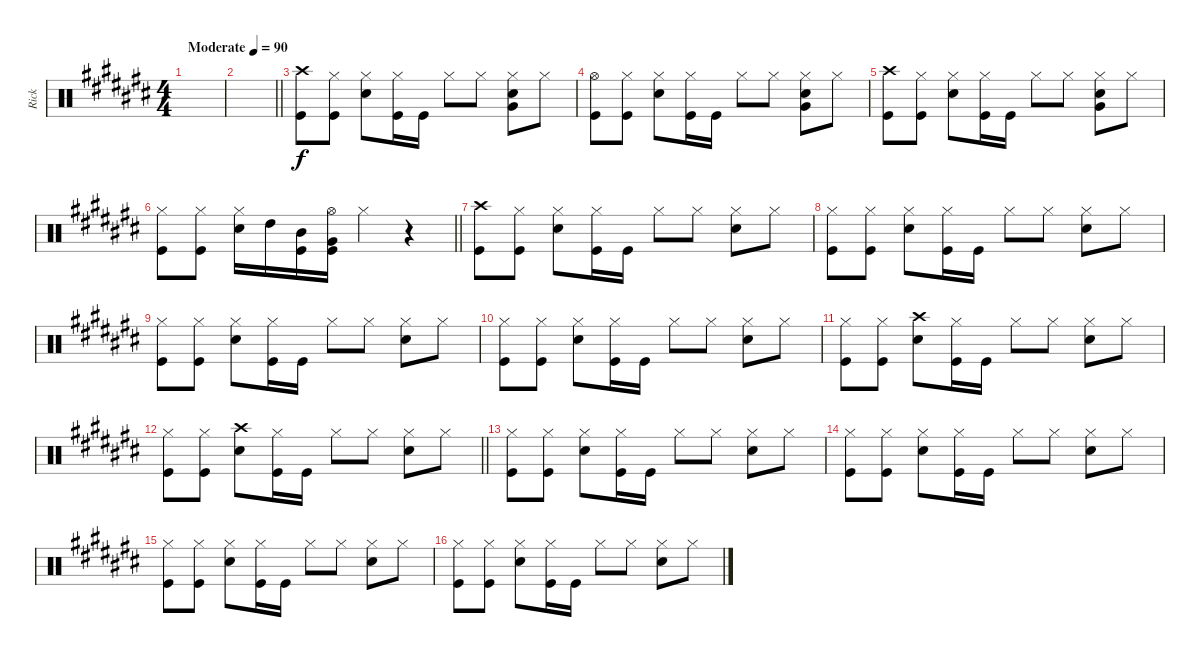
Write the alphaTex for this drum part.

\track ("Rick" "Rick") {instrument percussion}
\staff {score}
\articulation defaults
\ts (4 4)
\tempo (90 "Moderate")
\clef neutral
\ks c#
|
\barLineRight lightlight
|
("Crash high (hit)" "Kick (hit)").8 ("Hi-Hat (closed)" "Kick (hit)").8 ("Hi-Hat (closed)" "Snare (hit) 2").8 ("Hi-Hat (closed)" "Kick (hit)").16 "Kick (hit)".16 "Hi-Hat (closed)".8 "Hi-Hat (closed)".8 ("Hi-Hat (closed)" "Snare (hit) 2" "Very Low Tom (hit)").8 "Hi-Hat (closed)".8 |
("Hi-Hat (open)" "Kick (hit)").8 ("Hi-Hat (closed)" "Kick (hit)").8 ("Hi-Hat (closed)" "Snare (hit) 2").8 ("Hi-Hat (closed)" "Kick (hit)").16 "Kick (hit)".16 "Hi-Hat (closed)".8 "Hi-Hat (closed)".8 ("Hi-Hat (closed)" "Snare (hit) 2" "Very Low Tom (hit)").8 "Hi-Hat (closed)".8 |
("Crash high (hit)" "Kick (hit)").8 ("Hi-Hat (closed)" "Kick (hit)").8 ("Hi-Hat (closed)" "Snare (hit) 2").8 ("Hi-Hat (closed)" "Kick (hit)").16 "Kick (hit)".16 "Hi-Hat (closed)".8 "Hi-Hat (closed)".8 ("Hi-Hat (closed)" "Snare (hit) 2" "Very Low Tom (hit)").8 "Hi-Hat (closed)".8 |
\barLineRight lightlight
("Hi-Hat (closed)" "Kick (hit)").8 ("Hi-Hat (closed)" "Kick (hit)").8 ("Hi-Hat (closed)" "Snare (hit) 2").16 "High Tom (hit)".16 ("Mid Tom (hit)" "Kick (hit)").16 ("Hi-Hat (open)" "Very Low Tom (hit)" "Kick (hit)").16 "Hi-Hat (closed)".4 r.4 |
("Crash high (hit)" "Kick (hit)").8 ("Hi-Hat (closed)" "Kick (hit)").8 ("Hi-Hat (closed)" "Snare (hit) 2").8 ("Hi-Hat (closed)" "Kick (hit)").16 "Kick (hit)".16 "Hi-Hat (closed)".8 "Hi-Hat (closed)".8 ("Hi-Hat (closed)" "Snare (hit) 2").8 "Hi-Hat (closed)".8 |
("Hi-Hat (closed)" "Kick (hit)").8 ("Hi-Hat (closed)" "Kick (hit)").8 ("Hi-Hat (closed)" "Snare (hit) 2").8 ("Hi-Hat (closed)" "Kick (hit)").16 "Kick (hit)".16 "Hi-Hat (closed)".8 "Hi-Hat (closed)".8 ("Hi-Hat (closed)" "Snare (hit) 2").8 "Hi-Hat (closed)".8 |
("Hi-Hat (closed)" "Kick (hit)").8 ("Hi-Hat (closed)" "Kick (hit)").8 ("Hi-Hat (closed)" "Snare (hit) 2").8 ("Hi-Hat (closed)" "Kick (hit)").16 "Kick (hit)".16 "Hi-Hat (closed)".8 "Hi-Hat (closed)".8 ("Hi-Hat (closed)" "Snare (hit) 2").8 "Hi-Hat (closed)".8 |
("Hi-Hat (closed)" "Kick (hit)").8 ("Hi-Hat (closed)" "Kick (hit)").8 ("Hi-Hat (closed)" "Snare (hit) 2").8 ("Hi-Hat (closed)" "Kick (hit)").16 "Kick (hit)".16 "Hi-Hat (closed)".8 "Hi-Hat (closed)".8 ("Hi-Hat (closed)" "Snare (hit) 2").8 "Hi-Hat (closed)".8 |
("Hi-Hat (closed)" "Kick (hit)").8 ("Hi-Hat (closed)" "Kick (hit)").8 ("Crash high (hit)" "Snare (hit) 2").8 ("Hi-Hat (closed)" "Kick (hit)").16 "Kick (hit)".16 "Hi-Hat (closed)".8 "Hi-Hat (closed)".8 ("Hi-Hat (closed)" "Snare (hit) 2").8 "Hi-Hat (closed)".8 |
\barLineRight lightlight
("Hi-Hat (closed)" "Kick (hit)").8 ("Hi-Hat (closed)" "Kick (hit)").8 ("Crash high (hit)" "Snare (hit) 2").8 ("Hi-Hat (closed)" "Kick (hit)").16 "Kick (hit)".16 "Hi-Hat (closed)".8 "Hi-Hat (closed)".8 ("Hi-Hat (closed)" "Snare (hit) 2").8 "Hi-Hat (closed)".8 |
("Hi-Hat (closed)" "Kick (hit)").8 ("Hi-Hat (closed)" "Kick (hit)").8 ("Hi-Hat (closed)" "Snare (hit) 2").8 ("Hi-Hat (closed)" "Kick (hit)").16 "Kick (hit)".16 "Hi-Hat (closed)".8 "Hi-Hat (closed)".8 ("Hi-Hat (closed)" "Snare (hit) 2").8 "Hi-Hat (closed)".8 |
("Hi-Hat (closed)" "Kick (hit)").8 ("Hi-Hat (closed)" "Kick (hit)").8 ("Hi-Hat (closed)" "Snare (hit) 2").8 ("Hi-Hat (closed)" "Kick (hit)").16 "Kick (hit)".16 "Hi-Hat (closed)".8 "Hi-Hat (closed)".8 ("Hi-Hat (closed)" "Snare (hit) 2").8 "Hi-Hat (closed)".8 |
("Hi-Hat (closed)" "Kick (hit)").8 ("Hi-Hat (closed)" "Kick (hit)").8 ("Hi-Hat (closed)" "Snare (hit) 2").8 ("Hi-Hat (closed)" "Kick (hit)").16 "Kick (hit)".16 "Hi-Hat (closed)".8 "Hi-Hat (closed)".8 ("Hi-Hat (closed)" "Snare (hit) 2").8 "Hi-Hat (closed)".8 |
("Hi-Hat (closed)" "Kick (hit)").8 ("Hi-Hat (closed)" "Kick (hit)").8 ("Hi-Hat (closed)" "Snare (hit) 2").8 ("Hi-Hat (closed)" "Kick (hit)").16 "Kick (hit)".16 "Hi-Hat (closed)".8 "Hi-Hat (closed)".8 ("Hi-Hat (closed)" "Snare (hit) 2").8 "Hi-Hat (closed)".8
